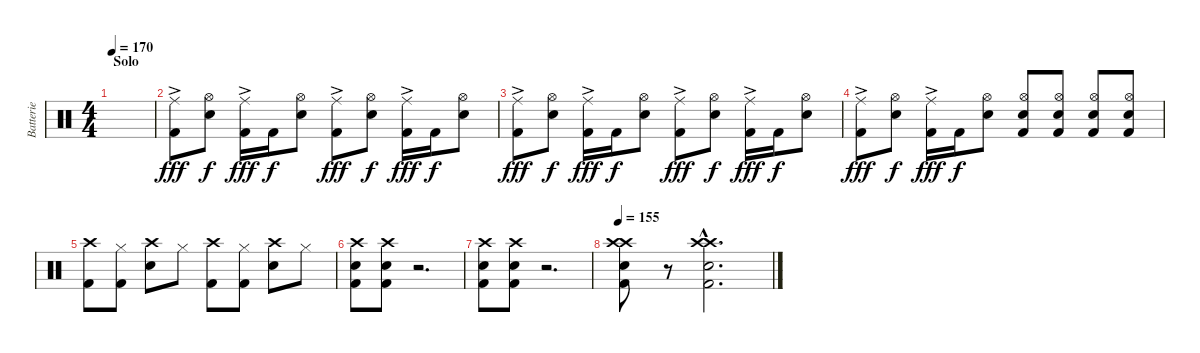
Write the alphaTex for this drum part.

\track ("Batterie" "Batterie") {instrument percussion}
\staff {score}
\articulation defaults
\ts (4 4)
\section ("" "Solo")
\tempo 170
\clef neutral
\ks c
|
("Ride (middle)"{ac} "Kick (hit) 2").8{dy fff} ("Hi-Hat (open)" "Snare (hit) 2").8{dy f} ("Ride (middle)"{ac} "Kick (hit) 2").16{dy fff} "Kick (hit) 2".16{dy f} ("Hi-Hat (open)" "Snare (hit) 2").8 ("Ride (middle)"{ac} "Kick (hit) 2").8{dy fff} ("Hi-Hat (open)" "Snare (hit) 2").8{dy f} ("Ride (middle)"{ac} "Kick (hit) 2").16{dy fff} "Kick (hit) 2".16{dy f} ("Hi-Hat (open)" "Snare (hit) 2").8 |
("Ride (middle)"{ac} "Kick (hit) 2").8{dy fff} ("Hi-Hat (open)" "Snare (hit) 2").8{dy f} ("Ride (middle)"{ac} "Kick (hit) 2").16{dy fff} "Kick (hit) 2".16{dy f} ("Hi-Hat (open)" "Snare (hit) 2").8 ("Ride (middle)"{ac} "Kick (hit) 2").8{dy fff} ("Hi-Hat (open)" "Snare (hit) 2").8{dy f} ("Ride (middle)"{ac} "Kick (hit) 2").16{dy fff} "Kick (hit) 2".16{dy f} ("Hi-Hat (open)" "Snare (hit) 2").8 |
("Ride (middle)"{ac} "Kick (hit) 2").8{dy fff} ("Hi-Hat (open)" "Snare (hit) 2").8{dy f} ("Ride (middle)"{ac} "Kick (hit) 2").16{dy fff} "Kick (hit) 2".16{dy f} ("Hi-Hat (open)" "Snare (hit) 2").8 ("Hi-Hat (open)" "Snare (hit) 2" "Kick (hit) 2").8 ("Hi-Hat (open)" "Snare (hit) 2" "Kick (hit) 2").8 ("Hi-Hat (open)" "Snare (hit) 2" "Kick (hit) 2").8 ("Hi-Hat (open)" "Snare (hit) 2" "Kick (hit) 2").8 |
("Crash high (hit)" "Kick (hit) 2").8 ("Hi-Hat (closed)" "Kick (hit) 2").8 ("Crash high (hit)" "Snare (hit) 2").8 "Hi-Hat (closed)".8 ("Crash high (hit)" "Kick (hit) 2").8 ("Hi-Hat (closed)" "Kick (hit) 2").8 ("Crash high (hit)" "Snare (hit) 2").8 "Hi-Hat (closed)".8 |
("Crash high (hit)" "Snare (hit) 2" "Kick (hit) 2").8 ("Crash high (hit)" "Snare (hit) 2" "Kick (hit) 2").8 r.2{d} |
("Crash high (hit)" "Snare (hit) 2" "Kick (hit) 2").8 ("Crash high (hit)" "Snare (hit) 2" "Kick (hit) 2").8 r.2{d} |
\tempo 155
("Crash high (hit)" "Crash high (hit)" "Snare (hit) 2" "Kick (hit) 2").8 r.8 ("Crash high (hit)"{hac} "Crash high (hit)"{hac} "Snare (hit) 2"{hac} "Kick (hit) 2"{hac}).2{d}
